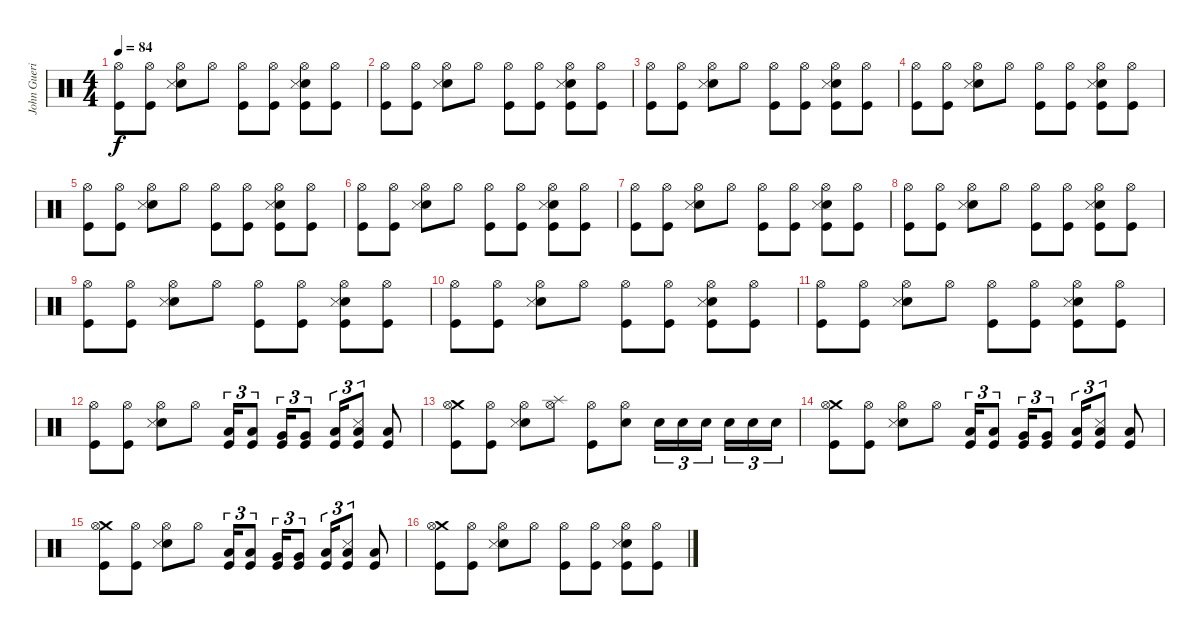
\track ("John Guerin - Drum's" "John Gueri") {instrument percussion}
\staff {score}
\articulation defaults
\ts (4 4)
\tempo 84
\clef neutral
\ks c
("Hi-Hat (open)" "Kick (hit)").8{dy f} ("Hi-Hat (open)" "Kick (hit)").8 ("Hi-Hat (open)" "Electric Snare (hit)" "Snare (side stick) 3").8 "Hi-Hat (open)".8 ("Hi-Hat (open)" "Kick (hit)").8 ("Hi-Hat (open)" "Kick (hit)").8 ("Hi-Hat (open)" "Electric Snare (hit)" "Snare (side stick) 3" "Kick (hit)").8 ("Hi-Hat (open)" "Kick (hit)").8 |
("Hi-Hat (open)" "Kick (hit)").8 ("Hi-Hat (open)" "Kick (hit)").8 ("Hi-Hat (open)" "Electric Snare (hit)" "Snare (side stick) 3").8 "Hi-Hat (open)".8 ("Hi-Hat (open)" "Kick (hit)").8 ("Hi-Hat (open)" "Kick (hit)").8 ("Hi-Hat (open)" "Electric Snare (hit)" "Snare (side stick) 3" "Kick (hit)").8 ("Hi-Hat (open)" "Kick (hit)").8 |
("Hi-Hat (open)" "Kick (hit)").8 ("Hi-Hat (open)" "Kick (hit)").8 ("Hi-Hat (open)" "Electric Snare (hit)" "Snare (side stick) 3").8 "Hi-Hat (open)".8 ("Hi-Hat (open)" "Kick (hit)").8 ("Hi-Hat (open)" "Kick (hit)").8 ("Hi-Hat (open)" "Electric Snare (hit)" "Snare (side stick) 3" "Kick (hit)").8 ("Hi-Hat (open)" "Kick (hit)").8 |
("Hi-Hat (open)" "Kick (hit)").8 ("Hi-Hat (open)" "Kick (hit)").8 ("Hi-Hat (open)" "Electric Snare (hit)" "Snare (side stick) 3").8 "Hi-Hat (open)".8 ("Hi-Hat (open)" "Kick (hit)").8 ("Hi-Hat (open)" "Kick (hit)").8 ("Hi-Hat (open)" "Electric Snare (hit)" "Snare (side stick) 3" "Kick (hit)").8 ("Hi-Hat (open)" "Kick (hit)").8 |
("Hi-Hat (open)" "Kick (hit)").8 ("Hi-Hat (open)" "Kick (hit)").8 ("Hi-Hat (open)" "Electric Snare (hit)" "Snare (side stick) 3").8 "Hi-Hat (open)".8 ("Hi-Hat (open)" "Kick (hit)").8 ("Hi-Hat (open)" "Kick (hit)").8 ("Hi-Hat (open)" "Electric Snare (hit)" "Snare (side stick) 3" "Kick (hit)").8 ("Hi-Hat (open)" "Kick (hit)").8 |
("Hi-Hat (open)" "Kick (hit)").8 ("Hi-Hat (open)" "Kick (hit)").8 ("Hi-Hat (open)" "Electric Snare (hit)" "Snare (side stick) 3").8 "Hi-Hat (open)".8 ("Hi-Hat (open)" "Kick (hit)").8 ("Hi-Hat (open)" "Kick (hit)").8 ("Hi-Hat (open)" "Electric Snare (hit)" "Snare (side stick) 3" "Kick (hit)").8 ("Hi-Hat (open)" "Kick (hit)").8 |
("Hi-Hat (open)" "Kick (hit)").8 ("Hi-Hat (open)" "Kick (hit)").8 ("Hi-Hat (open)" "Electric Snare (hit)" "Snare (side stick) 3").8 "Hi-Hat (open)".8 ("Hi-Hat (open)" "Kick (hit)").8 ("Hi-Hat (open)" "Kick (hit)").8 ("Hi-Hat (open)" "Electric Snare (hit)" "Snare (side stick) 3" "Kick (hit)").8 ("Hi-Hat (open)" "Kick (hit)").8 |
("Hi-Hat (open)" "Kick (hit)").8 ("Hi-Hat (open)" "Kick (hit)").8 ("Hi-Hat (open)" "Electric Snare (hit)" "Snare (side stick) 3").8 "Hi-Hat (open)".8 ("Hi-Hat (open)" "Kick (hit)").8 ("Hi-Hat (open)" "Kick (hit)").8 ("Hi-Hat (open)" "Electric Snare (hit)" "Snare (side stick) 3" "Kick (hit)").8 ("Hi-Hat (open)" "Kick (hit)").8 |
("Hi-Hat (open)" "Kick (hit)").8 ("Hi-Hat (open)" "Kick (hit)").8 ("Hi-Hat (open)" "Electric Snare (hit)" "Snare (side stick) 3").8 "Hi-Hat (open)".8 ("Hi-Hat (open)" "Kick (hit)").8 ("Hi-Hat (open)" "Kick (hit)").8 ("Hi-Hat (open)" "Electric Snare (hit)" "Snare (side stick) 3" "Kick (hit)").8 ("Hi-Hat (open)" "Kick (hit)").8 |
("Hi-Hat (open)" "Kick (hit)").8 ("Hi-Hat (open)" "Kick (hit)").8 ("Hi-Hat (open)" "Electric Snare (hit)" "Snare (side stick) 3").8 "Hi-Hat (open)".8 ("Hi-Hat (open)" "Kick (hit)").8 ("Hi-Hat (open)" "Kick (hit)").8 ("Hi-Hat (open)" "Electric Snare (hit)" "Snare (side stick) 3" "Kick (hit)").8 ("Hi-Hat (open)" "Kick (hit)").8 |
("Hi-Hat (open)" "Kick (hit)").8 ("Hi-Hat (open)" "Kick (hit)").8 ("Hi-Hat (open)" "Electric Snare (hit)" "Snare (side stick) 3").8 "Hi-Hat (open)".8 ("Hi-Hat (open)" "Kick (hit)").8 ("Hi-Hat (open)" "Kick (hit)").8 ("Hi-Hat (open)" "Electric Snare (hit)" "Snare (side stick) 3" "Kick (hit)").8 ("Hi-Hat (open)" "Kick (hit)").8 |
("Hi-Hat (open)" "Kick (hit)").8 ("Hi-Hat (open)" "Kick (hit)").8 ("Hi-Hat (open)" "Electric Snare (hit)" "Snare (side stick) 3").8 "Hi-Hat (open)".8 ("Low Tom (hit)" "Kick (hit)").16{tu (3 2)} ("Low Tom (hit)" "Kick (hit)").8{tu (3 2)} ("Very Low Tom (hit)" "Kick (hit)").16{tu (3 2)} ("Very Low Tom (hit)" "Kick (hit)").8{tu (3 2)} ("Low Floor Tom (hit)" "Kick (hit)").16{tu (3 2)} ("Low Floor Tom (hit)" "Snare (side stick) 3" "Kick (hit)").8{tu (3 2)} ("Low Floor Tom (hit)" "Kick (hit)").8 |
("Crash medium (hit)" "Hi-Hat (open)" "Kick (hit)").8 ("Hi-Hat (open)" "Kick (hit)").8 ("Hi-Hat (open)" "Electric Snare (hit)" "Snare (side stick) 3").8 ("Splash (hit)" "Hi-Hat (open)").8 ("Hi-Hat (open)" "Kick (hit)").8 ("Hi-Hat (open)" "Electric Snare (hit)").8 "Electric Snare (hit)".16{tu (3 2)} "Electric Snare (hit)".16{tu (3 2)} "Electric Snare (hit)".16{tu (3 2)} "Electric Snare (hit)".16{tu (3 2)} "Electric Snare (hit)".16{tu (3 2)} "Electric Snare (hit)".16{tu (3 2)} |
("Crash medium (hit)" "Hi-Hat (open)" "Kick (hit)").8 ("Hi-Hat (open)" "Kick (hit)").8 ("Hi-Hat (open)" "Electric Snare (hit)" "Snare (side stick) 3").8 "Hi-Hat (open)".8 ("Low Tom (hit)" "Kick (hit)").16{tu (3 2)} ("Low Tom (hit)" "Kick (hit)").8{tu (3 2)} ("Very Low Tom (hit)" "Kick (hit)").16{tu (3 2)} ("Very Low Tom (hit)" "Kick (hit)").8{tu (3 2)} ("Low Floor Tom (hit)" "Kick (hit)").16{tu (3 2)} ("Low Floor Tom (hit)" "Snare (side stick) 3" "Kick (hit)").8{tu (3 2)} ("Low Floor Tom (hit)" "Kick (hit)").8 |
("Crash medium (hit)" "Hi-Hat (open)" "Kick (hit)").8 ("Hi-Hat (open)" "Kick (hit)").8 ("Hi-Hat (open)" "Electric Snare (hit)" "Snare (side stick) 3").8 "Hi-Hat (open)".8 ("Low Tom (hit)" "Kick (hit)").16{tu (3 2)} ("Low Tom (hit)" "Kick (hit)").8{tu (3 2)} ("Very Low Tom (hit)" "Kick (hit)").16{tu (3 2)} ("Very Low Tom (hit)" "Kick (hit)").8{tu (3 2)} ("Low Floor Tom (hit)" "Kick (hit)").16{tu (3 2)} ("Low Floor Tom (hit)" "Snare (side stick) 3" "Kick (hit)").8{tu (3 2)} ("Low Floor Tom (hit)" "Kick (hit)").8 |
("Crash medium (hit)" "Hi-Hat (open)" "Kick (hit)").8 ("Hi-Hat (open)" "Kick (hit)").8 ("Hi-Hat (open)" "Electric Snare (hit)" "Snare (side stick) 3").8 "Hi-Hat (open)".8 ("Hi-Hat (open)" "Kick (hit)").8 ("Hi-Hat (open)" "Kick (hit)").8 ("Hi-Hat (open)" "Electric Snare (hit)" "Snare (side stick) 3" "Kick (hit)").8 ("Hi-Hat (open)" "Kick (hit)").8
